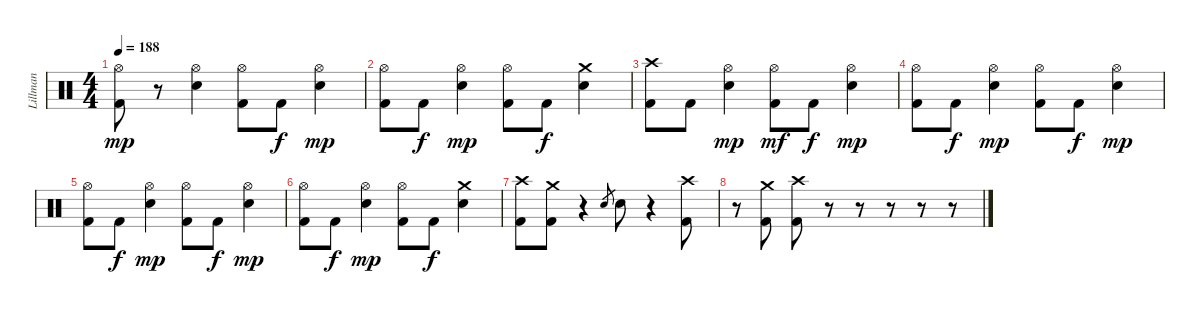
\track ("Lillman" "Lillman") {instrument percussion}
\staff {score}
\articulation defaults
\ts (4 4)
\tempo 188
\clef neutral
\ks c
("Hi-Hat (open)" "Kick (hit) 2").8{dy mp} r.8 ("Hi-Hat (open)" "Snare (hit) 2").4 ("Hi-Hat (open)" "Kick (hit) 2").8 "Kick (hit) 2".8{dy f} ("Hi-Hat (open)" "Snare (hit) 2").4{dy mp} |
("Hi-Hat (open)" "Kick (hit) 2").8 "Kick (hit) 2".8{dy f} ("Hi-Hat (open)" "Snare (hit) 2").4{dy mp} ("Hi-Hat (open)" "Kick (hit) 2").8 "Kick (hit) 2".8{dy f} ("Crash medium (hit)" "Snare (hit) 2").4 |
("Crash high (hit)" "Kick (hit) 2").8 "Kick (hit) 2".8 ("Hi-Hat (open)" "Snare (hit) 2").4{dy mp} ("Hi-Hat (open)" "Kick (hit) 2").8{dy mf} "Kick (hit) 2".8{dy f} ("Hi-Hat (open)" "Snare (hit) 2").4{dy mp} |
("Hi-Hat (open)" "Kick (hit) 2").8 "Kick (hit) 2".8{dy f} ("Hi-Hat (open)" "Snare (hit) 2").4{dy mp} ("Hi-Hat (open)" "Kick (hit) 2").8 "Kick (hit) 2".8{dy f} ("Hi-Hat (open)" "Snare (hit) 2").4{dy mp} |
("Hi-Hat (open)" "Kick (hit) 2").8 "Kick (hit) 2".8{dy f} ("Hi-Hat (open)" "Snare (hit) 2").4{dy mp} ("Hi-Hat (open)" "Kick (hit) 2").8 "Kick (hit) 2".8{dy f} ("Hi-Hat (open)" "Snare (hit) 2").4{dy mp} |
("Hi-Hat (open)" "Kick (hit) 2").8 "Kick (hit) 2".8{dy f} ("Hi-Hat (open)" "Snare (hit) 2").4{dy mp} ("Hi-Hat (open)" "Kick (hit) 2").8 "Kick (hit) 2".8{dy f} ("Crash medium (hit)" "Snare (hit) 2").4 |
("Crash high (hit)" "Kick (hit) 2").8 ("Crash medium (hit)" "Kick (hit) 2").8 r.4 "Snare (hit) 2".8{gr} "Snare (hit) 2".8 r.4 ("Crash high (hit)" "Kick (hit) 2").8 |
r.8 ("Crash medium (hit)" "Kick (hit) 2").8 ("Crash high (hit)" "Kick (hit) 2").8 r.8 r.8 r.8 r.8 r.8
